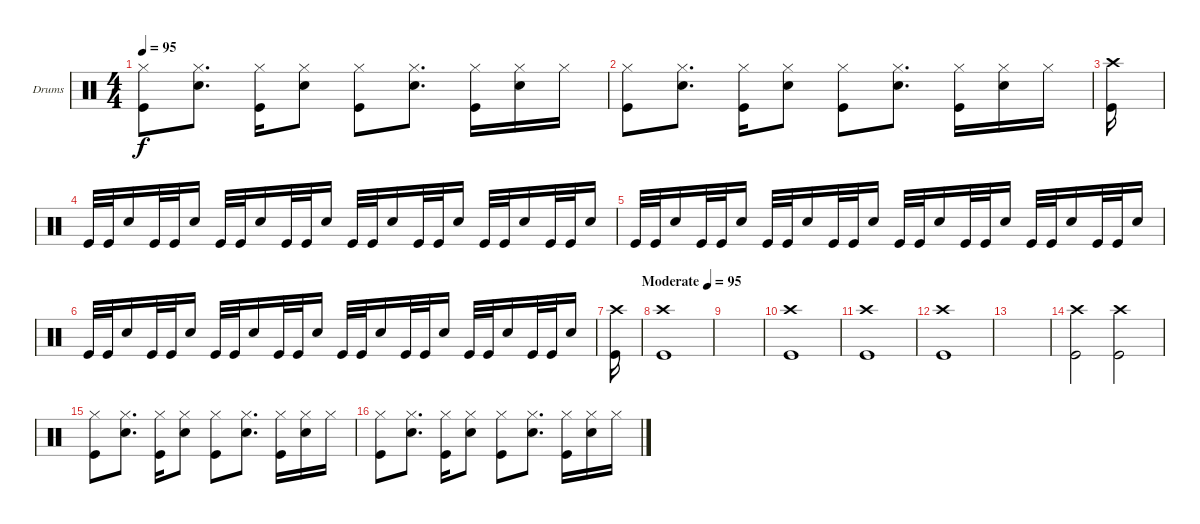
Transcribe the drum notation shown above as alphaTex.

\bracketExtendMode groupsimilarinstruments
\firstSystemTrackNameOrientation horizontal
\otherSystemsTrackNameOrientation horizontal
\track ("Drumkit" "Drums") {instrument percussion}
\staff {score}
\articulation defaults
\ts (4 4)
\tempo 95
\clef neutral
\scale
0.333333
\ks c
("Kick (hit)" "Hi-Hat (closed)").8{dy f} ("Snare (hit) 2" "Hi-Hat (closed)").8{d} ("Kick (hit)" "Hi-Hat (closed)").16 ("Snare (hit) 2" "Hi-Hat (closed)").8 ("Kick (hit)" "Hi-Hat (closed)").8 ("Snare (hit) 2" "Hi-Hat (closed)").8{d} ("Kick (hit)" "Hi-Hat (closed)").16 ("Snare (hit) 2" "Hi-Hat (closed)").16 "Hi-Hat (closed)".16 |
\scale
0.333333 ("Kick (hit)" "Hi-Hat (closed)").8 ("Snare (hit) 2" "Hi-Hat (closed)").8{d} ("Kick (hit)" "Hi-Hat (closed)").16 ("Snare (hit) 2" "Hi-Hat (closed)").8 ("Kick (hit)" "Hi-Hat (closed)").8 ("Snare (hit) 2" "Hi-Hat (closed)").8{d} ("Kick (hit)" "Hi-Hat (closed)").16 ("Snare (hit) 2" "Hi-Hat (closed)").16 "Hi-Hat (closed)".16 |
\scale
0.333333 ("Kick (hit)" "Crash high (hit)").16 |
\scale
0.333333 "Kick (hit)".32 "Kick (hit)".32 "Snare (hit) 2".16 "Kick (hit)".32 "Kick (hit)".32 "Snare (hit) 2".16 "Kick (hit)".32 "Kick (hit)".32 "Snare (hit) 2".16 "Kick (hit)".32 "Kick (hit)".32 "Snare (hit) 2".16 "Kick (hit)".32 "Kick (hit)".32 "Snare (hit) 2".16 "Kick (hit)".32 "Kick (hit)".32 "Snare (hit) 2".16 "Kick (hit)".32 "Kick (hit)".32 "Snare (hit) 2".16 "Kick (hit)".32 "Kick (hit)".32 "Snare (hit) 2".16 |
\scale
0.333333 "Kick (hit)".32 "Kick (hit)".32 "Snare (hit) 2".16 "Kick (hit)".32 "Kick (hit)".32 "Snare (hit) 2".16 "Kick (hit)".32 "Kick (hit)".32 "Snare (hit) 2".16 "Kick (hit)".32 "Kick (hit)".32 "Snare (hit) 2".16 "Kick (hit)".32 "Kick (hit)".32 "Snare (hit) 2".16 "Kick (hit)".32 "Kick (hit)".32 "Snare (hit) 2".16 "Kick (hit)".32 "Kick (hit)".32 "Snare (hit) 2".16 "Kick (hit)".32 "Kick (hit)".32 "Snare (hit) 2".16 |
\scale
0.333333 "Kick (hit)".32 "Kick (hit)".32 "Snare (hit) 2".16 "Kick (hit)".32 "Kick (hit)".32 "Snare (hit) 2".16 "Kick (hit)".32 "Kick (hit)".32 "Snare (hit) 2".16 "Kick (hit)".32 "Kick (hit)".32 "Snare (hit) 2".16 "Kick (hit)".32 "Kick (hit)".32 "Snare (hit) 2".16 "Kick (hit)".32 "Kick (hit)".32 "Snare (hit) 2".16 "Kick (hit)".32 "Kick (hit)".32 "Snare (hit) 2".16 "Kick (hit)".32 "Kick (hit)".32 "Snare (hit) 2".16 |
\tempo (95 "Moderate" 1)
\scale
0.333333 ("Kick (hit)" "Crash high (hit)").16 |
\scale
0.333333 ("Kick (hit)" "Crash high (hit)").1 |
\scale
0.333333 |
\scale
0.333333 ("Kick (hit)" "Crash high (hit)").1 |
\scale
0.333333 ("Kick (hit)" "Crash high (hit)").1 |
\scale
0.333333 ("Kick (hit)" "Crash high (hit)").1 |
\scale
0.333333 |
\scale
0.333333 ("Kick (hit)" "Crash high (hit)").2 ("Kick (hit)" "Crash high (hit)").2 |
\scale
0.333333 ("Kick (hit)" "Hi-Hat (closed)").8 ("Snare (hit) 2" "Hi-Hat (closed)").8{d} ("Kick (hit)" "Hi-Hat (closed)").16 ("Snare (hit) 2" "Hi-Hat (closed)").8 ("Kick (hit)" "Hi-Hat (closed)").8 ("Snare (hit) 2" "Hi-Hat (closed)").8{d} ("Kick (hit)" "Hi-Hat (closed)").16 ("Snare (hit) 2" "Hi-Hat (closed)").16 "Hi-Hat (closed)".16 |
\scale
0.333333 ("Kick (hit)" "Hi-Hat (closed)").8 ("Snare (hit) 2" "Hi-Hat (closed)").8{d} ("Kick (hit)" "Hi-Hat (closed)").16 ("Snare (hit) 2" "Hi-Hat (closed)").8 ("Kick (hit)" "Hi-Hat (closed)").8 ("Snare (hit) 2" "Hi-Hat (closed)").8{d} ("Kick (hit)" "Hi-Hat (closed)").16 ("Snare (hit) 2" "Hi-Hat (closed)").16 "Hi-Hat (closed)".16
